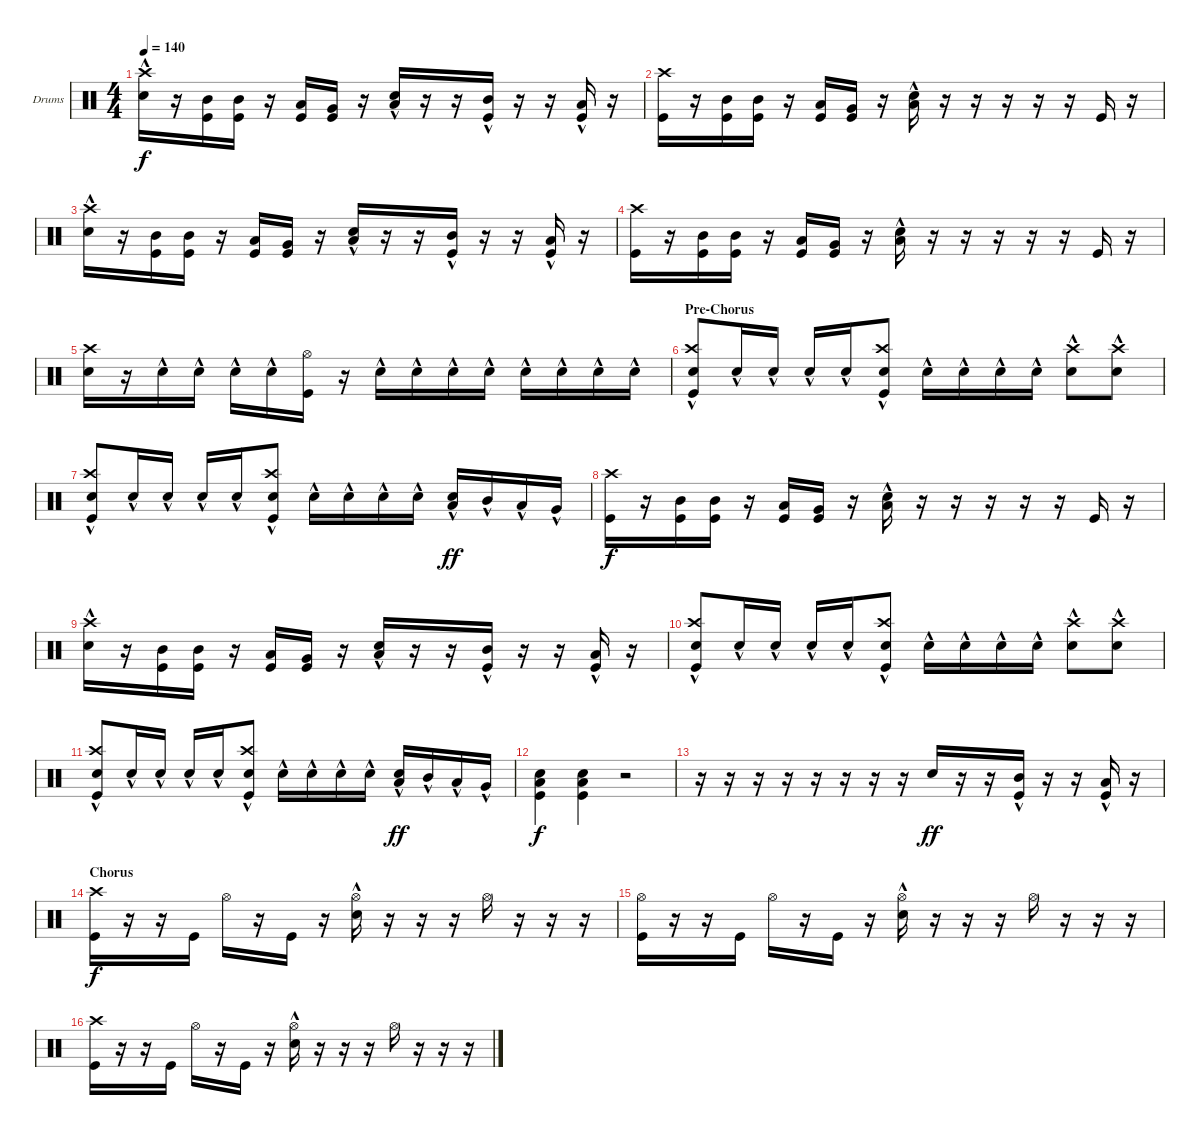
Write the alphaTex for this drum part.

\defaultSystemsLayout 4
\bracketExtendMode groupsimilarinstruments
\firstSystemTrackNameOrientation horizontal
\otherSystemsTrackNameOrientation horizontal
\track ("Drumkit - Paul" "Drums") {instrument percussion}
\staff {score}
\articulation defaults
\ts (4 4)
\tempo 140
\clef neutral
\ks c
("Snare (hit) 2"{hac} "Crash high (hit)").16{dy f} r.16 ("Mid Tom (hit)" "Kick (hit)").16 ("Mid Tom (hit)" "Kick (hit)").16 r.16 ("Low Tom (hit)" "Kick (hit)").16 ("Very Low Tom (hit)" "Kick (hit)").16 r.16 ("Snare (hit) 2"{hac} "Low Tom (hit)").16 r.16 r.16 ("Kick (hit)" "Mid Tom (hit)"{hac}).16 r.16 r.16 ("Kick (hit)" "Low Tom (hit)"{hac}).16 r.16 |
("Kick (hit)" "Crash high (hit)").16 r.16 ("Mid Tom (hit)" "Kick (hit)").16 ("Mid Tom (hit)" "Kick (hit)").16 r.16 ("Low Tom (hit)" "Kick (hit)").16 ("Very Low Tom (hit)" "Kick (hit)").16 r.16 ("Snare (hit) 2"{hac} "Low Tom (hit)").16 r.16 r.16 r.16 r.16 r.16 "Kick (hit)".16 r.16 |
("Snare (hit) 2"{hac} "Crash high (hit)").16 r.16 ("Mid Tom (hit)" "Kick (hit)").16 ("Mid Tom (hit)" "Kick (hit)").16 r.16 ("Low Tom (hit)" "Kick (hit)").16 ("Very Low Tom (hit)" "Kick (hit)").16 r.16 ("Snare (hit) 2"{hac} "Low Tom (hit)").16 r.16 r.16 ("Kick (hit)" "Mid Tom (hit)"{hac}).16 r.16 r.16 ("Kick (hit)" "Low Tom (hit)"{hac}).16 r.16 |
("Kick (hit)" "Crash high (hit)").16 r.16 ("Mid Tom (hit)" "Kick (hit)").16 ("Mid Tom (hit)" "Kick (hit)").16 r.16 ("Low Tom (hit)" "Kick (hit)").16 ("Very Low Tom (hit)" "Kick (hit)").16 r.16 ("Snare (hit) 2"{hac} "Low Tom (hit)").16 r.16 r.16 r.16 r.16 r.16 "Kick (hit)".16 r.16 |
("Snare (hit) 2" "Crash high (hit)").16 r.16 "Snare (hit) 2"{hac}.16 "Snare (hit) 2"{hac}.16 "Snare (hit) 2"{hac}.16 "Snare (hit) 2"{hac}.16 ("Kick (hit)" "Hi-Hat (open)").16 r.16 "Snare (hit) 2"{hac}.16 "Snare (hit) 2"{hac}.16 "Snare (hit) 2"{hac}.16 "Snare (hit) 2"{hac}.16 "Snare (hit) 2"{hac}.16 "Snare (hit) 2"{hac}.16 "Snare (hit) 2"{hac}.16 "Snare (hit) 2"{hac}.16 |
\section ("" "Pre-Chorus")
("Crash high (hit)" "Snare (hit) 2"{hac} "Kick (hit)").8 "Snare (hit) 2"{hac}.16 "Snare (hit) 2"{hac}.16 "Snare (hit) 2"{hac}.16 "Snare (hit) 2"{hac}.16 ("Snare (hit) 2"{hac} "Kick (hit)" "Crash high (hit)").8 "Snare (hit) 2"{hac}.16 "Snare (hit) 2"{hac}.16 "Snare (hit) 2"{hac}.16 "Snare (hit) 2"{hac}.16 ("Snare (hit) 2"{hac} "Crash high (hit)").8 ("Snare (hit) 2"{hac} "Crash high (hit)").8 |
("Snare (hit) 2"{hac} "Kick (hit)" "Crash high (hit)").8 "Snare (hit) 2"{hac}.16 "Snare (hit) 2"{hac}.16 "Snare (hit) 2"{hac}.16 "Snare (hit) 2"{hac}.16 ("Snare (hit) 2"{hac} "Kick (hit)" "Crash high (hit)").8 "Snare (hit) 2"{hac}.16 "Snare (hit) 2"{hac}.16 "Snare (hit) 2"{hac}.16 "Snare (hit) 2"{hac}.16 ("Snare (hit) 2"{hac} "Low Tom (hit)"{hac}).16{dy ff} "Mid Tom (hit)"{hac}.16 "Low Tom (hit)"{hac}.16 "Very Low Tom (hit)"{hac}.16 |
("Kick (hit)" "Crash high (hit)").16{dy f} r.16 ("Mid Tom (hit)" "Kick (hit)").16 ("Mid Tom (hit)" "Kick (hit)").16 r.16 ("Low Tom (hit)" "Kick (hit)").16 ("Very Low Tom (hit)" "Kick (hit)").16 r.16 ("Snare (hit) 2"{hac} "Low Tom (hit)").16 r.16 r.16 r.16 r.16 r.16 "Kick (hit)".16 r.16 |
("Snare (hit) 2"{hac} "Crash high (hit)").16 r.16 ("Mid Tom (hit)" "Kick (hit)").16 ("Mid Tom (hit)" "Kick (hit)").16 r.16 ("Low Tom (hit)" "Kick (hit)").16 ("Very Low Tom (hit)" "Kick (hit)").16 r.16 ("Snare (hit) 2"{hac} "Low Tom (hit)").16 r.16 r.16 ("Kick (hit)" "Mid Tom (hit)"{hac}).16 r.16 r.16 ("Kick (hit)" "Low Tom (hit)"{hac}).16 r.16 |
("Crash high (hit)" "Snare (hit) 2"{hac} "Kick (hit)").8 "Snare (hit) 2"{hac}.16 "Snare (hit) 2"{hac}.16 "Snare (hit) 2"{hac}.16 "Snare (hit) 2"{hac}.16 ("Snare (hit) 2"{hac} "Kick (hit)" "Crash high (hit)").8 "Snare (hit) 2"{hac}.16 "Snare (hit) 2"{hac}.16 "Snare (hit) 2"{hac}.16 "Snare (hit) 2"{hac}.16 ("Snare (hit) 2"{hac} "Crash high (hit)").8 ("Snare (hit) 2"{hac} "Crash high (hit)").8 |
("Snare (hit) 2"{hac} "Kick (hit)" "Crash high (hit)").8 "Snare (hit) 2"{hac}.16 "Snare (hit) 2"{hac}.16 "Snare (hit) 2"{hac}.16 "Snare (hit) 2"{hac}.16 ("Snare (hit) 2"{hac} "Kick (hit)" "Crash high (hit)").8 "Snare (hit) 2"{hac}.16 "Snare (hit) 2"{hac}.16 "Snare (hit) 2"{hac}.16 "Snare (hit) 2"{hac}.16 ("Snare (hit) 2"{hac} "Low Tom (hit)"{hac}).16{dy ff} "Mid Tom (hit)"{hac}.16 "Low Tom (hit)"{hac}.16 "Very Low Tom (hit)"{hac}.16 |
("Kick (hit)" "Snare (hit) 2" "Low Tom (hit)").4{dy f} ("Snare (hit) 2" "Low Tom (hit)" "Kick (hit)").4 r.2 |
r.16 r.16 r.16 r.16 r.16 r.16 r.16 r.16 "Snare (hit) 2".16{dy ff} r.16 r.16 ("Kick (hit)" "Mid Tom (hit)"{hac}).16 r.16 r.16 ("Kick (hit)" "Low Tom (hit)"{hac}).16 r.16 |
\section ("" "Chorus")
("Crash high (hit)" "Kick (hit)").16{dy f} r.16 r.16 "Kick (hit)".16 "Hi-Hat (open)".16 r.16 "Kick (hit)".16 r.16 ("Snare (hit) 2"{hac} "Hi-Hat (open)").16 r.16 r.16 r.16 "Hi-Hat (open)".16 r.16 r.16 r.16 |
("Kick (hit)" "Hi-Hat (open)").16 r.16 r.16 "Kick (hit)".16 "Hi-Hat (open)".16 r.16 "Kick (hit)".16 r.16 ("Snare (hit) 2"{hac} "Hi-Hat (open)").16 r.16 r.16 r.16 "Hi-Hat (open)".16 r.16 r.16 r.16 |
("Crash high (hit)" "Kick (hit)").16 r.16 r.16 "Kick (hit)".16 "Hi-Hat (open)".16 r.16 "Kick (hit)".16 r.16 ("Snare (hit) 2"{hac} "Hi-Hat (open)").16 r.16 r.16 r.16 "Hi-Hat (open)".16 r.16 r.16 r.16
